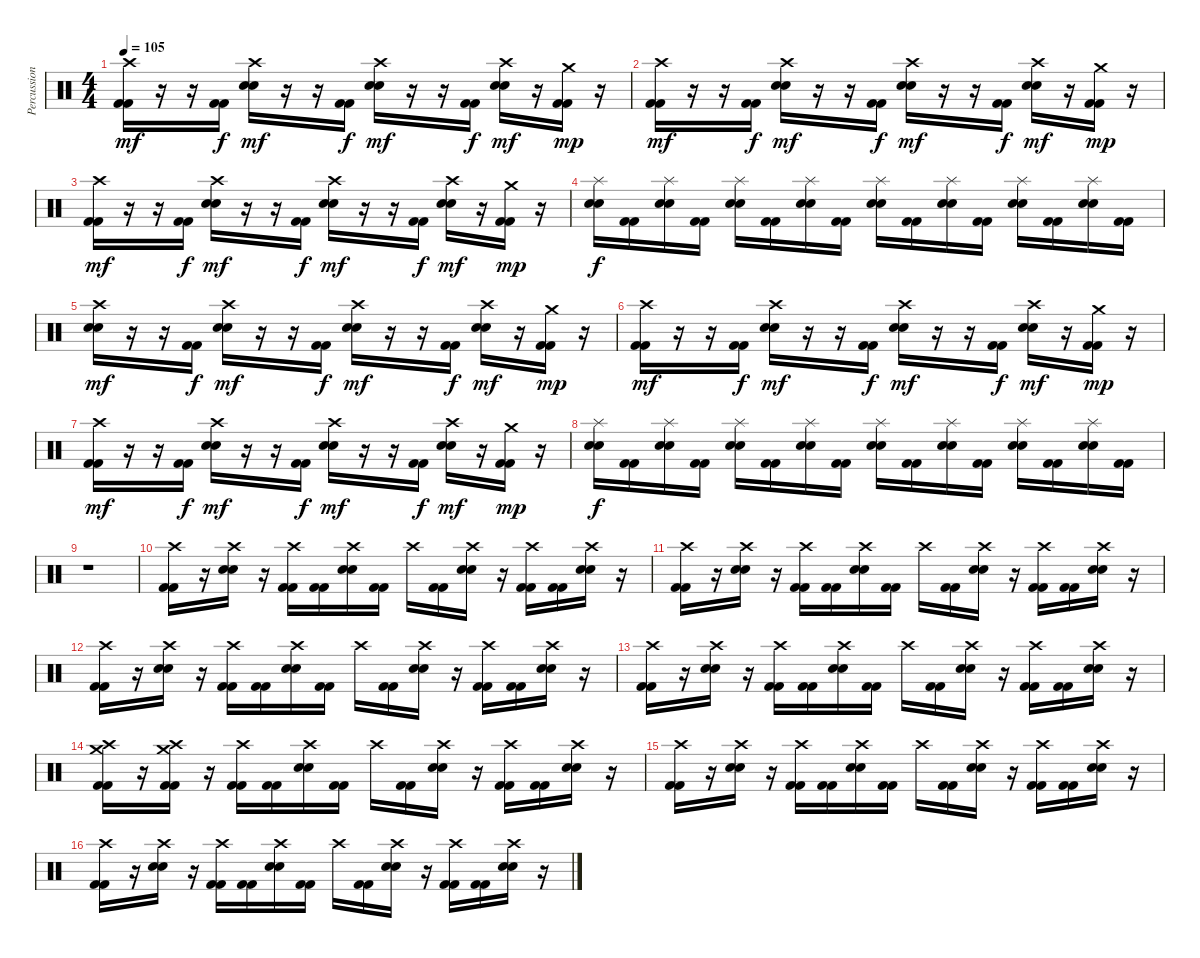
\track ("Percussions" "Percussion") {instrument percussion}
\staff {score}
\articulation defaults
\ts (4 4)
\tempo 105
\clef neutral
\ks c
("Crash high (hit)" "Kick (hit) 2" "Kick (hit) 2").16{dy mf} r.16 r.16 ("Kick (hit) 2" "Kick (hit) 2").16{dy f} ("Crash high (hit)" "Electric Snare (hit)" "Electric Snare (hit)").16{dy mf} r.16 r.16 ("Kick (hit) 2" "Kick (hit) 2").16{dy f} ("Crash high (hit)" "Electric Snare (hit)" "Electric Snare (hit)").16{dy mf} r.16 r.16 ("Kick (hit) 2" "Kick (hit) 2").16{dy f} ("Crash high (hit)" "Electric Snare (hit)" "Electric Snare (hit)").16{dy mf} r.16 ("Crash medium (hit)" "Kick (hit) 2" "Kick (hit) 2").16{dy mp} r.16 |
("Crash high (hit)" "Kick (hit) 2" "Kick (hit) 2").16{dy mf} r.16 r.16 ("Kick (hit) 2" "Kick (hit) 2").16{dy f} ("Crash high (hit)" "Electric Snare (hit)" "Electric Snare (hit)").16{dy mf} r.16 r.16 ("Kick (hit) 2" "Kick (hit) 2").16{dy f} ("Crash high (hit)" "Electric Snare (hit)" "Electric Snare (hit)").16{dy mf} r.16 r.16 ("Kick (hit) 2" "Kick (hit) 2").16{dy f} ("Crash high (hit)" "Electric Snare (hit)" "Electric Snare (hit)").16{dy mf} r.16 ("Crash medium (hit)" "Kick (hit) 2" "Kick (hit) 2").16{dy mp} r.16 |
("Crash high (hit)" "Kick (hit) 2" "Kick (hit) 2").16{dy mf} r.16 r.16 ("Kick (hit) 2" "Kick (hit) 2").16{dy f} ("Crash high (hit)" "Electric Snare (hit)" "Electric Snare (hit)").16{dy mf} r.16 r.16 ("Kick (hit) 2" "Kick (hit) 2").16{dy f} ("Crash high (hit)" "Electric Snare (hit)" "Electric Snare (hit)").16{dy mf} r.16 r.16 ("Kick (hit) 2" "Kick (hit) 2").16{dy f} ("Crash high (hit)" "Electric Snare (hit)" "Electric Snare (hit)").16{dy mf} r.16 ("Crash medium (hit)" "Kick (hit) 2" "Kick (hit) 2").16{dy mp} r.16 |
("Splash (hit)" "Electric Snare (hit)" "Electric Snare (hit)").16{dy f} ("Kick (hit) 2" "Kick (hit) 2").16 ("Splash (hit)" "Electric Snare (hit)" "Electric Snare (hit)").16 ("Kick (hit) 2" "Kick (hit) 2").16 ("Splash (hit)" "Electric Snare (hit)" "Electric Snare (hit)").16 ("Kick (hit) 2" "Kick (hit) 2").16 ("Splash (hit)" "Electric Snare (hit)" "Electric Snare (hit)").16 ("Kick (hit) 2" "Kick (hit) 2").16 ("Splash (hit)" "Electric Snare (hit)" "Electric Snare (hit)").16 ("Kick (hit) 2" "Kick (hit) 2").16 ("Splash (hit)" "Electric Snare (hit)" "Electric Snare (hit)").16 ("Kick (hit) 2" "Kick (hit) 2").16 ("Splash (hit)" "Electric Snare (hit)" "Electric Snare (hit)").16 ("Kick (hit) 2" "Kick (hit) 2").16 ("Splash (hit)" "Electric Snare (hit)" "Electric Snare (hit)").16 ("Kick (hit) 2" "Kick (hit) 2").16 |
("Crash high (hit)" "Electric Snare (hit)" "Electric Snare (hit)").16{dy mf} r.16 r.16 ("Kick (hit) 2" "Kick (hit) 2").16{dy f} ("Crash high (hit)" "Electric Snare (hit)" "Electric Snare (hit)").16{dy mf} r.16 r.16 ("Kick (hit) 2" "Kick (hit) 2").16{dy f} ("Crash high (hit)" "Electric Snare (hit)" "Electric Snare (hit)").16{dy mf} r.16 r.16 ("Kick (hit) 2" "Kick (hit) 2").16{dy f} ("Crash high (hit)" "Electric Snare (hit)" "Electric Snare (hit)").16{dy mf} r.16 ("Crash medium (hit)" "Kick (hit) 2" "Kick (hit) 2").16{dy mp} r.16 |
("Crash high (hit)" "Kick (hit) 2" "Kick (hit) 2").16{dy mf} r.16 r.16 ("Kick (hit) 2" "Kick (hit) 2").16{dy f} ("Crash high (hit)" "Electric Snare (hit)" "Electric Snare (hit)").16{dy mf} r.16 r.16 ("Kick (hit) 2" "Kick (hit) 2").16{dy f} ("Crash high (hit)" "Electric Snare (hit)" "Electric Snare (hit)").16{dy mf} r.16 r.16 ("Kick (hit) 2" "Kick (hit) 2").16{dy f} ("Crash high (hit)" "Electric Snare (hit)" "Electric Snare (hit)").16{dy mf} r.16 ("Crash medium (hit)" "Kick (hit) 2" "Kick (hit) 2").16{dy mp} r.16 |
("Crash high (hit)" "Kick (hit) 2" "Kick (hit) 2").16{dy mf} r.16 r.16 ("Kick (hit) 2" "Kick (hit) 2").16{dy f} ("Crash high (hit)" "Electric Snare (hit)" "Electric Snare (hit)").16{dy mf} r.16 r.16 ("Kick (hit) 2" "Kick (hit) 2").16{dy f} ("Crash high (hit)" "Electric Snare (hit)" "Electric Snare (hit)").16{dy mf} r.16 r.16 ("Kick (hit) 2" "Kick (hit) 2").16{dy f} ("Crash high (hit)" "Electric Snare (hit)" "Electric Snare (hit)").16{dy mf} r.16 ("Crash medium (hit)" "Kick (hit) 2" "Kick (hit) 2").16{dy mp} r.16 |
("Splash (hit)" "Electric Snare (hit)" "Electric Snare (hit)").16{dy f} ("Kick (hit) 2" "Kick (hit) 2").16 ("Splash (hit)" "Electric Snare (hit)" "Electric Snare (hit)").16 ("Kick (hit) 2" "Kick (hit) 2").16 ("Splash (hit)" "Electric Snare (hit)" "Electric Snare (hit)").16 ("Kick (hit) 2" "Kick (hit) 2").16 ("Splash (hit)" "Electric Snare (hit)" "Electric Snare (hit)").16 ("Kick (hit) 2" "Kick (hit) 2").16 ("Splash (hit)" "Electric Snare (hit)" "Electric Snare (hit)").16 ("Kick (hit) 2" "Kick (hit) 2").16 ("Splash (hit)" "Electric Snare (hit)" "Electric Snare (hit)").16 ("Kick (hit) 2" "Kick (hit) 2").16 ("Splash (hit)" "Electric Snare (hit)" "Electric Snare (hit)").16 ("Kick (hit) 2" "Kick (hit) 2").16 ("Splash (hit)" "Electric Snare (hit)" "Electric Snare (hit)").16 ("Kick (hit) 2" "Kick (hit) 2").16 |
r.1 |
("Crash high (hit)" "Kick (hit) 2" "Kick (hit) 2").16 r.16 ("Crash high (hit)" "Electric Snare (hit)" "Electric Snare (hit)").16 r.16 ("Crash high (hit)" "Kick (hit) 2" "Kick (hit) 2").16 ("Kick (hit) 2" "Kick (hit) 2").16 ("Crash high (hit)" "Electric Snare (hit)" "Electric Snare (hit)").16 ("Kick (hit) 2" "Kick (hit) 2").16 "Crash high (hit)".16 ("Kick (hit) 2" "Kick (hit) 2").16 ("Crash high (hit)" "Electric Snare (hit)" "Electric Snare (hit)").16 r.16 ("Crash high (hit)" "Kick (hit) 2" "Kick (hit) 2").16 ("Kick (hit) 2" "Kick (hit) 2").16 ("Crash high (hit)" "Electric Snare (hit)" "Electric Snare (hit)").16 r.16 |
("Crash high (hit)" "Kick (hit) 2" "Kick (hit) 2").16 r.16 ("Crash high (hit)" "Electric Snare (hit)" "Electric Snare (hit)").16 r.16 ("Crash high (hit)" "Kick (hit) 2" "Kick (hit) 2").16 ("Kick (hit) 2" "Kick (hit) 2").16 ("Crash high (hit)" "Electric Snare (hit)" "Electric Snare (hit)").16 ("Kick (hit) 2" "Kick (hit) 2").16 "Crash high (hit)".16 ("Kick (hit) 2" "Kick (hit) 2").16 ("Crash high (hit)" "Electric Snare (hit)" "Electric Snare (hit)").16 r.16 ("Crash high (hit)" "Kick (hit) 2" "Kick (hit) 2").16 ("Kick (hit) 2" "Kick (hit) 2").16 ("Crash high (hit)" "Electric Snare (hit)" "Electric Snare (hit)").16 r.16 |
("Crash high (hit)" "Kick (hit) 2" "Kick (hit) 2").16 r.16 ("Crash high (hit)" "Electric Snare (hit)" "Electric Snare (hit)").16 r.16 ("Crash high (hit)" "Kick (hit) 2" "Kick (hit) 2").16 ("Kick (hit) 2" "Kick (hit) 2").16 ("Crash high (hit)" "Electric Snare (hit)" "Electric Snare (hit)").16 ("Kick (hit) 2" "Kick (hit) 2").16 "Crash high (hit)".16 ("Kick (hit) 2" "Kick (hit) 2").16 ("Crash high (hit)" "Electric Snare (hit)" "Electric Snare (hit)").16 r.16 ("Crash high (hit)" "Kick (hit) 2" "Kick (hit) 2").16 ("Kick (hit) 2" "Kick (hit) 2").16 ("Crash high (hit)" "Electric Snare (hit)" "Electric Snare (hit)").16 r.16 |
("Crash high (hit)" "Kick (hit) 2" "Kick (hit) 2").16 r.16 ("Crash high (hit)" "Electric Snare (hit)" "Electric Snare (hit)").16 r.16 ("Crash high (hit)" "Kick (hit) 2" "Kick (hit) 2").16 ("Kick (hit) 2" "Kick (hit) 2").16 ("Crash high (hit)" "Electric Snare (hit)" "Electric Snare (hit)").16 ("Kick (hit) 2" "Kick (hit) 2").16 "Crash high (hit)".16 ("Kick (hit) 2" "Kick (hit) 2").16 ("Crash high (hit)" "Electric Snare (hit)" "Electric Snare (hit)").16 r.16 ("Crash high (hit)" "Kick (hit) 2" "Kick (hit) 2").16 ("Kick (hit) 2" "Kick (hit) 2").16 ("Crash high (hit)" "Electric Snare (hit)" "Electric Snare (hit)").16 r.16 |
("Crash high (hit)" "Crash medium (hit)" "Kick (hit) 2" "Kick (hit) 2").16 r.16 ("Crash high (hit)" "Crash medium (hit)" "Kick (hit) 2" "Kick (hit) 2").16 r.16 ("Crash high (hit)" "Kick (hit) 2" "Kick (hit) 2").16 ("Kick (hit) 2" "Kick (hit) 2").16 ("Crash high (hit)" "Electric Snare (hit)" "Electric Snare (hit)").16 ("Kick (hit) 2" "Kick (hit) 2").16 "Crash high (hit)".16 ("Kick (hit) 2" "Kick (hit) 2").16 ("Crash high (hit)" "Electric Snare (hit)" "Electric Snare (hit)").16 r.16 ("Crash high (hit)" "Kick (hit) 2" "Kick (hit) 2").16 ("Kick (hit) 2" "Kick (hit) 2").16 ("Crash high (hit)" "Electric Snare (hit)" "Electric Snare (hit)").16 r.16 |
("Crash high (hit)" "Kick (hit) 2" "Kick (hit) 2").16 r.16 ("Crash high (hit)" "Electric Snare (hit)" "Electric Snare (hit)").16 r.16 ("Crash high (hit)" "Kick (hit) 2" "Kick (hit) 2").16 ("Kick (hit) 2" "Kick (hit) 2").16 ("Crash high (hit)" "Electric Snare (hit)" "Electric Snare (hit)").16 ("Kick (hit) 2" "Kick (hit) 2").16 "Crash high (hit)".16 ("Kick (hit) 2" "Kick (hit) 2").16 ("Crash high (hit)" "Electric Snare (hit)" "Electric Snare (hit)").16 r.16 ("Crash high (hit)" "Kick (hit) 2" "Kick (hit) 2").16 ("Kick (hit) 2" "Kick (hit) 2").16 ("Crash high (hit)" "Electric Snare (hit)" "Electric Snare (hit)").16 r.16 |
("Crash high (hit)" "Kick (hit) 2" "Kick (hit) 2").16 r.16 ("Crash high (hit)" "Electric Snare (hit)" "Electric Snare (hit)").16 r.16 ("Crash high (hit)" "Kick (hit) 2" "Kick (hit) 2").16 ("Kick (hit) 2" "Kick (hit) 2").16 ("Crash high (hit)" "Electric Snare (hit)" "Electric Snare (hit)").16 ("Kick (hit) 2" "Kick (hit) 2").16 "Crash high (hit)".16 ("Kick (hit) 2" "Kick (hit) 2").16 ("Crash high (hit)" "Electric Snare (hit)" "Electric Snare (hit)").16 r.16 ("Crash high (hit)" "Kick (hit) 2" "Kick (hit) 2").16 ("Kick (hit) 2" "Kick (hit) 2").16 ("Crash high (hit)" "Electric Snare (hit)" "Electric Snare (hit)").16 r.16
